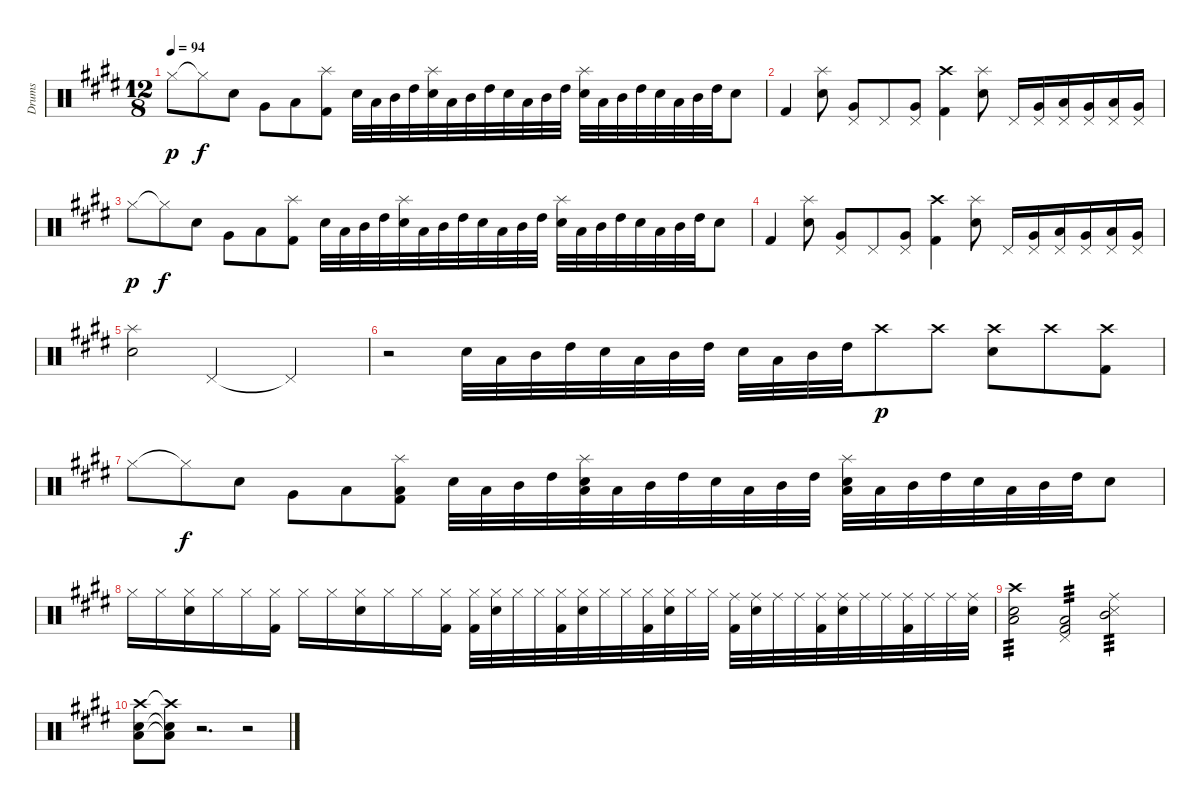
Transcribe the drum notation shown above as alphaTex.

\track ("Drums" "Drums") {instrument percussion}
\staff {score}
\articulation defaults
\ts (12 8)
\tempo 94
\clef neutral
\ks e "Hi-Hat (closed)".8{dy p} "Hi-Hat (closed)"{t}.8{dy f} "Snare (hit) 2".8 "Very Low Tom (hit)".8 "Low Tom (hit)".8
("Splash (hit)" "Kick (hit) 2").8 "Snare (hit) 2".32 "Low Tom (hit)".32 "Mid Tom (hit)".32 "High Tom (hit)".32 ("Splash (hit)" "Snare (hit) 2").32 "Low Tom (hit)".32 "Mid Tom (hit)".32 "High Tom (hit)".32 "Snare (hit) 2".32 "Low Tom (hit)".32 "Mid Tom (hit)".32 "High Tom (hit)".32 ("Splash (hit)" "Snare (hit) 2").32 "Low Tom (hit)".32 "Mid Tom (hit)".32 "High Tom (hit)".32 "Snare (hit) 2".32 "Low Tom (hit)".32 "Mid Tom (hit)".32 "High Tom (hit)".32 "Snare (hit) 2".8 |
"Kick (hit) 2".4 ("Splash (hit)" "Snare (hit) 2").8 ("Pedal Hi-Hat (hit)" "Very Low Tom (hit)").8 "Pedal Hi-Hat (hit)".8 ("Pedal Hi-Hat (hit)" "Very Low Tom (hit)").8 ("Crash high (hit)" "Kick (hit) 2").4 ("Splash (hit)" "Snare (hit) 2").8 "Pedal Hi-Hat (hit)".16 ("Pedal Hi-Hat (hit)" "Very Low Tom (hit)").16 ("Pedal Hi-Hat (hit)" "Low Tom (hit)").16 ("Pedal Hi-Hat (hit)" "Very Low Tom (hit)").16 ("Pedal Hi-Hat (hit)" "Low Tom (hit)").16 ("Pedal Hi-Hat (hit)" "Very Low Tom (hit)").16 |
"Hi-Hat (closed)".8{dy p} "Hi-Hat (closed)"{t}.8{dy f} "Snare (hit) 2".8 "Very Low Tom (hit)".8 "Low Tom (hit)".8 ("Splash (hit)" "Kick (hit) 2").8 "Snare (hit) 2".32 "Low Tom (hit)".32 "Mid Tom (hit)".32 "High Tom (hit)".32 ("Splash (hit)" "Snare (hit) 2").32 "Low Tom (hit)".32 "Mid Tom (hit)".32 "High Tom (hit)".32 "Snare (hit) 2".32 "Low Tom (hit)".32 "Mid Tom (hit)".32 "High Tom (hit)".32 ("Splash (hit)" "Snare (hit) 2").32 "Low Tom (hit)".32 "Mid Tom (hit)".32 "High Tom (hit)".32 "Snare (hit) 2".32 "Low Tom (hit)".32 "Mid Tom (hit)".32 "High Tom (hit)".32 "Snare (hit) 2".8 |
"Kick (hit) 2".4 ("Splash (hit)" "Snare (hit) 2").8 ("Pedal Hi-Hat (hit)" "Very Low Tom (hit)").8 "Pedal Hi-Hat (hit)".8 ("Pedal Hi-Hat (hit)" "Very Low Tom (hit)").8 ("Crash high (hit)" "Kick (hit) 2").4 ("Splash (hit)" "Snare (hit) 2").8 "Pedal Hi-Hat (hit)".16 ("Pedal Hi-Hat (hit)" "Very Low Tom (hit)").16 ("Pedal Hi-Hat (hit)" "Low Tom (hit)").16 ("Pedal Hi-Hat (hit)" "Very Low Tom (hit)").16 ("Pedal Hi-Hat (hit)" "Low Tom (hit)").16 ("Pedal Hi-Hat (hit)" "Very Low Tom (hit)").16 |
("Splash (hit)" "Snare (hit) 2").2 "Pedal Hi-Hat (hit)".2 "Pedal Hi-Hat (hit)"{t}.2 |
r.2 "Snare (hit) 2".32 "Low Tom (hit)".32 "Mid Tom (hit)".32 "High Tom (hit)".32 "Snare (hit) 2".32 "Low Tom (hit)".32 "Mid Tom (hit)".32 "High Tom (hit)".32 "Snare (hit) 2".32 "Low Tom (hit)".32 "Mid Tom (hit)".32 "High Tom (hit)".32 "Crash high (hit)".8{dy p volume 13} "Crash high (hit)".8 ("Crash high (hit)" "Snare (hit) 2").8 "Crash high (hit)".8 ("Crash high (hit)" "Kick (hit) 2").8 |
"Hi-Hat (closed)".8 "Hi-Hat (closed)"{t}.8{dy f} "Snare (hit) 2".8 "Very Low Tom (hit)".8 "Low Tom (hit)".8 ("Splash (hit)" "Kick (hit) 2" "Low Floor Tom (hit)").8 "Snare (hit) 2".32 "Low Tom (hit)".32 "Mid Tom (hit)".32 "High Tom (hit)".32 ("Splash (hit)" "Snare (hit) 2" "Low Floor Tom (hit)").32 "Low Tom (hit)".32 "Mid Tom (hit)".32 "High Tom (hit)".32 "Snare (hit) 2".32 "Low Tom (hit)".32 "Mid Tom (hit)".32 "High Tom (hit)".32 ("Splash (hit)" "Snare (hit) 2" "Low Floor Tom (hit)").32 "Low Tom (hit)".32 "Mid Tom (hit)".32 "High Tom (hit)".32 "Snare (hit) 2".32 "Low Tom (hit)".32 "Mid Tom (hit)".32 "High Tom (hit)".32 "Snare (hit) 2".8 |
"Hi-Hat (closed)".16 "Hi-Hat (closed)".16 ("Hi-Hat (closed)" "Snare (hit) 2").16 "Hi-Hat (closed)".16 "Hi-Hat (closed)".16 ("Hi-Hat (closed)" "Kick (hit) 2").16 "Hi-Hat (closed)".16 "Hi-Hat (closed)".16 ("Hi-Hat (closed)" "Snare (hit) 2").16 "Hi-Hat (closed)".16 "Hi-Hat (closed)".16 ("Hi-Hat (closed)" "Kick (hit) 2").16 ("Hi-Hat (closed)" "Kick (hit) 2").32 ("Hi-Hat (closed)" "Snare (hit) 2").32 "Hi-Hat (closed)".32 "Hi-Hat (closed)".32 ("Hi-Hat (closed)" "Kick (hit) 2").32 ("Hi-Hat (closed)" "Snare (hit) 2").32 "Hi-Hat (closed)".32 "Hi-Hat (closed)".32 ("Hi-Hat (closed)" "Kick (hit) 2").32 ("Hi-Hat (closed)" "Snare (hit) 2").32 "Hi-Hat (closed)".32 "Hi-Hat (closed)".32 ("Ride (middle)" "Kick (hit) 2").32 ("Ride (middle)" "Snare (hit) 2").32 "Ride (middle)".32 "Ride (middle)".32 ("Ride (middle)" "Kick (hit) 2").32 ("Ride (middle)" "Snare (hit) 2").32 "Ride (middle)".32 "Ride (middle)".32 ("Ride (middle)" "Kick (hit) 2").32 "Ride (middle)".32 "Ride (middle)".32 ("Ride (middle)" "Snare (hit) 2").32 |
("Crash high (hit)" "Snare (hit) 2" "Low Floor Tom (hit)").2{tp 3} ("Pedal Hi-Hat (hit)" "Kick (hit) 2" "Low Tom (hit)").2{tp 3} ("Ride (middle)" "Snare (side stick) 3" "Mid Tom (hit)").2{tp 3} |
("Crash high (hit)" "Snare (hit) 2" "Low Floor Tom (hit)").8 ("Crash high (hit)"{t} "Snare (hit) 2"{t} "Low Floor Tom (hit)"{t}).8 r.2{d} r.2
